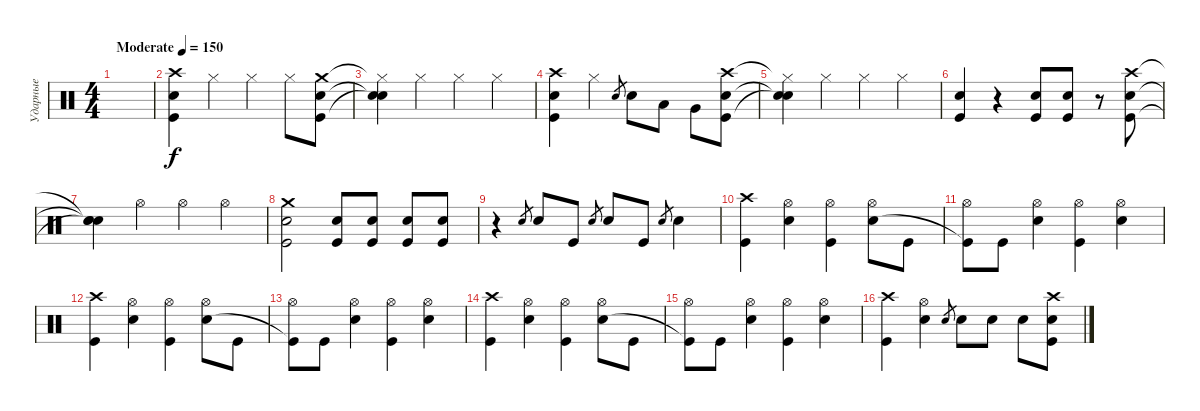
\track ("Ударные" "Ударные") {instrument percussion}
\staff {score}
\articulation defaults
\ts (4 4)
\tempo (150 "Moderate")
\clef neutral
\ks c
|
("Crash high (hit)" "Kick (hit)" "Snare (hit) 2").4 "Hi-Hat (closed)".4 "Hi-Hat (closed)".4 "Hi-Hat (closed)".8 ("Crash medium (hit)" "Snare (hit) 2" "Kick (hit)").8 |
("Hi-Hat (closed)"{t} "Snare (hit)"{t} "Snare (hit)"{t}).4 "Hi-Hat (closed)".4 "Hi-Hat (closed)".4 "Hi-Hat (closed)".4 |
("Crash high (hit)" "Snare (hit) 2" "Kick (hit)").4 "Hi-Hat (closed)".4 "Snare (hit) 2".8{gr} "Snare (hit) 2".8 "Low Tom (hit)".8 "Very Low Tom (hit)".8 ("Crash high (hit)" "Snare (hit) 2" "Kick (hit)").8 |
("Hi-Hat (closed)"{t} "Snare (hit)"{t} "Snare (hit)"{t}).4 "Hi-Hat (closed)".4 "Hi-Hat (closed)".4 "Hi-Hat (closed)".4 |
("Snare (hit) 2" "Kick (hit)").4 r.4 ("Snare (hit) 2" "Kick (hit)").8 ("Snare (hit) 2" "Kick (hit)").8 r.8 ("Crash high (hit)" "Snare (hit) 2" "Kick (hit)").8 |
("Snare (hit)"{t} "Snare (hit)"{t} "Snare (hit)"{t}).4 "Hi-Hat (open)".4 "Hi-Hat (open)".4 "Hi-Hat (open)".4 |
("Crash medium (hit)" "Snare (hit) 2" "Kick (hit)").2 ("Snare (hit) 2" "Kick (hit)").8 ("Snare (hit) 2" "Kick (hit)").8 ("Snare (hit) 2" "Kick (hit)").8 ("Snare (hit) 2" "Kick (hit)").8 |
r.4 "Snare (hit) 2".8{gr} "Snare (hit) 2".8 "Kick (hit)".8 "Snare (hit) 2".8{gr} "Snare (hit) 2".8 "Kick (hit)".8 "Snare (hit) 2".8{gr} "Snare (hit) 2".4 |
("Crash high (hit)" "Kick (hit)").4 ("Hi-Hat (open)" "Snare (hit) 2").4 ("Hi-Hat (open)" "Kick (hit)").4 ("Hi-Hat (open)" "Snare (hit) 2").8 "Kick (hit)".8 |
("Hi-Hat (open)" "Kick (hit)"{t}).8 "Kick (hit)".8 ("Hi-Hat (open)" "Snare (hit) 2").4 ("Hi-Hat (open)" "Kick (hit)").4 ("Hi-Hat (open)" "Snare (hit) 2").4 |
("Crash high (hit)" "Kick (hit)").4 ("Hi-Hat (open)" "Snare (hit) 2").4 ("Hi-Hat (open)" "Kick (hit)").4 ("Hi-Hat (open)" "Snare (hit) 2").8 "Kick (hit)".8 |
("Hi-Hat (open)" "Kick (hit)"{t}).8 "Kick (hit)".8 ("Hi-Hat (open)" "Snare (hit) 2").4 ("Hi-Hat (open)" "Kick (hit)").4 ("Hi-Hat (open)" "Snare (hit) 2").4 |
("Crash high (hit)" "Kick (hit)").4 ("Hi-Hat (open)" "Snare (hit) 2").4 ("Hi-Hat (open)" "Kick (hit)").4 ("Hi-Hat (open)" "Snare (hit) 2").8 "Kick (hit)".8 |
("Hi-Hat (open)" "Kick (hit)"{t}).8 "Kick (hit)".8 ("Hi-Hat (open)" "Snare (hit) 2").4 ("Hi-Hat (open)" "Kick (hit)").4 ("Hi-Hat (open)" "Snare (hit) 2").4 |
("Crash high (hit)" "Kick (hit)").4 ("Hi-Hat (open)" "Snare (hit) 2").4 "Snare (hit) 2".8{gr} "Snare (hit) 2".8 "Snare (hit) 2".8 "Snare (hit) 2".8 ("Crash high (hit)" "Snare (hit) 2" "Kick (hit)").8
